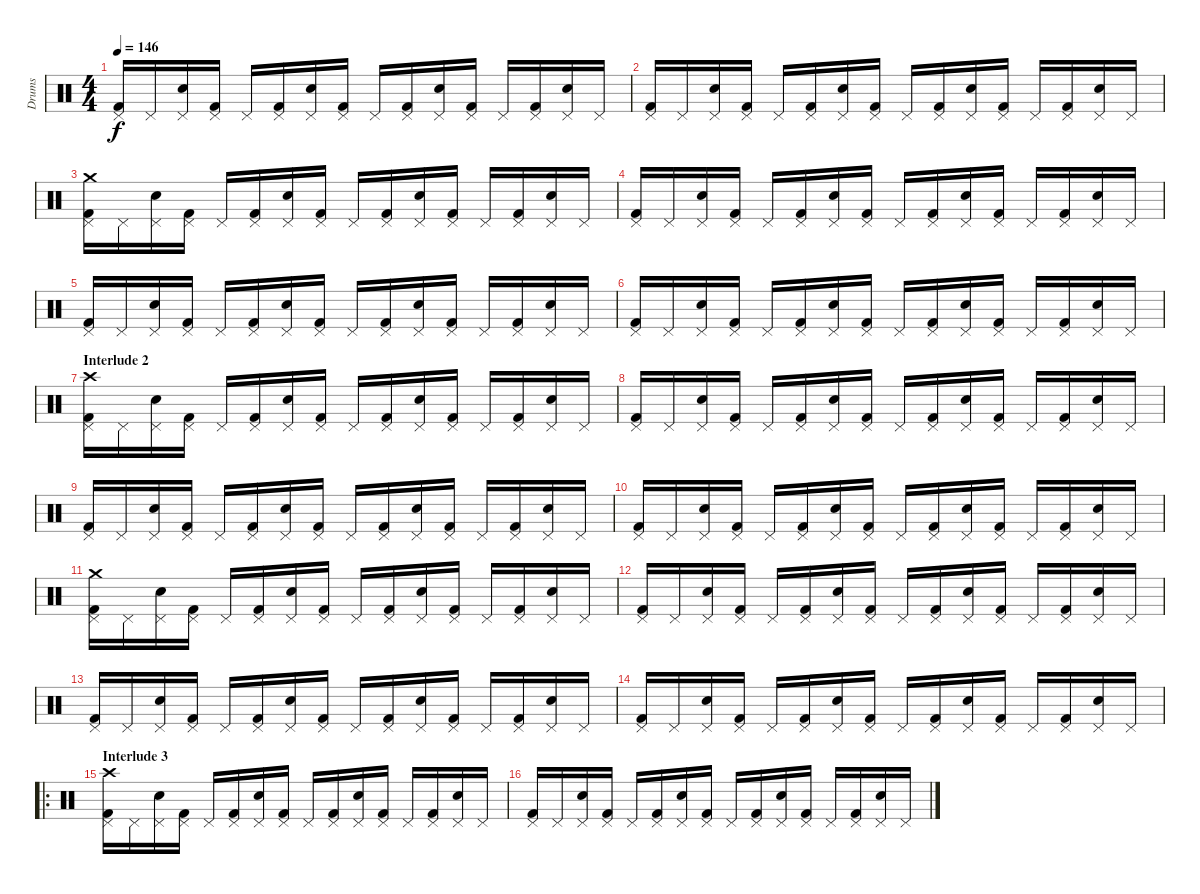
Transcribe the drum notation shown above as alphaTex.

\track ("Drums" "Drums") {instrument percussion}
\staff {score}
\articulation defaults
\ts (4 4)
\tempo 146
\clef neutral
\ks c
("Kick (hit) 2" "Pedal Hi-Hat (hit)").16{dy f} "Pedal Hi-Hat (hit)".16 ("Snare (hit) 2" "Pedal Hi-Hat (hit)").16 ("Kick (hit) 2" "Pedal Hi-Hat (hit)").16 "Pedal Hi-Hat (hit)".16 ("Kick (hit) 2" "Pedal Hi-Hat (hit)").16 ("Snare (hit) 2" "Pedal Hi-Hat (hit)").16 ("Kick (hit) 2" "Pedal Hi-Hat (hit)").16 "Pedal Hi-Hat (hit)".16 ("Kick (hit) 2" "Pedal Hi-Hat (hit)").16 ("Snare (hit) 2" "Pedal Hi-Hat (hit)").16 ("Kick (hit) 2" "Pedal Hi-Hat (hit)").16 "Pedal Hi-Hat (hit)".16 ("Kick (hit) 2" "Pedal Hi-Hat (hit)").16 ("Snare (hit) 2" "Pedal Hi-Hat (hit)").16 "Pedal Hi-Hat (hit)".16 |
("Kick (hit) 2" "Pedal Hi-Hat (hit)").16 "Pedal Hi-Hat (hit)".16 ("Snare (hit) 2" "Pedal Hi-Hat (hit)").16 ("Kick (hit) 2" "Pedal Hi-Hat (hit)").16 "Pedal Hi-Hat (hit)".16 ("Kick (hit) 2" "Pedal Hi-Hat (hit)").16 ("Snare (hit) 2" "Pedal Hi-Hat (hit)").16 ("Kick (hit) 2" "Pedal Hi-Hat (hit)").16 "Pedal Hi-Hat (hit)".16 ("Kick (hit) 2" "Pedal Hi-Hat (hit)").16 ("Snare (hit) 2" "Pedal Hi-Hat (hit)").16 ("Kick (hit) 2" "Pedal Hi-Hat (hit)").16 "Pedal Hi-Hat (hit)".16 ("Kick (hit) 2" "Pedal Hi-Hat (hit)").16 ("Snare (hit) 2" "Pedal Hi-Hat (hit)").16 "Pedal Hi-Hat (hit)".16 |
("Kick (hit) 2" "Pedal Hi-Hat (hit)" "Crash medium (hit)").16 "Pedal Hi-Hat (hit)".16 ("Snare (hit) 2" "Pedal Hi-Hat (hit)").16 ("Kick (hit) 2" "Pedal Hi-Hat (hit)").16 "Pedal Hi-Hat (hit)".16 ("Kick (hit) 2" "Pedal Hi-Hat (hit)").16 ("Snare (hit) 2" "Pedal Hi-Hat (hit)").16 ("Kick (hit) 2" "Pedal Hi-Hat (hit)").16 "Pedal Hi-Hat (hit)".16 ("Kick (hit) 2" "Pedal Hi-Hat (hit)").16 ("Snare (hit) 2" "Pedal Hi-Hat (hit)").16 ("Kick (hit) 2" "Pedal Hi-Hat (hit)").16 "Pedal Hi-Hat (hit)".16 ("Kick (hit) 2" "Pedal Hi-Hat (hit)").16 ("Snare (hit) 2" "Pedal Hi-Hat (hit)").16 "Pedal Hi-Hat (hit)".16 |
("Kick (hit) 2" "Pedal Hi-Hat (hit)").16 "Pedal Hi-Hat (hit)".16 ("Snare (hit) 2" "Pedal Hi-Hat (hit)").16 ("Kick (hit) 2" "Pedal Hi-Hat (hit)").16 "Pedal Hi-Hat (hit)".16 ("Kick (hit) 2" "Pedal Hi-Hat (hit)").16 ("Snare (hit) 2" "Pedal Hi-Hat (hit)").16 ("Kick (hit) 2" "Pedal Hi-Hat (hit)").16 "Pedal Hi-Hat (hit)".16 ("Kick (hit) 2" "Pedal Hi-Hat (hit)").16 ("Snare (hit) 2" "Pedal Hi-Hat (hit)").16 ("Kick (hit) 2" "Pedal Hi-Hat (hit)").16 "Pedal Hi-Hat (hit)".16 ("Kick (hit) 2" "Pedal Hi-Hat (hit)").16 ("Snare (hit) 2" "Pedal Hi-Hat (hit)").16 "Pedal Hi-Hat (hit)".16 |
("Kick (hit) 2" "Pedal Hi-Hat (hit)").16 "Pedal Hi-Hat (hit)".16 ("Snare (hit) 2" "Pedal Hi-Hat (hit)").16 ("Kick (hit) 2" "Pedal Hi-Hat (hit)").16 "Pedal Hi-Hat (hit)".16 ("Kick (hit) 2" "Pedal Hi-Hat (hit)").16 ("Snare (hit) 2" "Pedal Hi-Hat (hit)").16 ("Kick (hit) 2" "Pedal Hi-Hat (hit)").16 "Pedal Hi-Hat (hit)".16 ("Kick (hit) 2" "Pedal Hi-Hat (hit)").16 ("Snare (hit) 2" "Pedal Hi-Hat (hit)").16 ("Kick (hit) 2" "Pedal Hi-Hat (hit)").16 "Pedal Hi-Hat (hit)".16 ("Kick (hit) 2" "Pedal Hi-Hat (hit)").16 ("Snare (hit) 2" "Pedal Hi-Hat (hit)").16 "Pedal Hi-Hat (hit)".16 |
("Kick (hit) 2" "Pedal Hi-Hat (hit)").16 "Pedal Hi-Hat (hit)".16 ("Snare (hit) 2" "Pedal Hi-Hat (hit)").16 ("Kick (hit) 2" "Pedal Hi-Hat (hit)").16 "Pedal Hi-Hat (hit)".16 ("Kick (hit) 2" "Pedal Hi-Hat (hit)").16 ("Snare (hit) 2" "Pedal Hi-Hat (hit)").16 ("Kick (hit) 2" "Pedal Hi-Hat (hit)").16 "Pedal Hi-Hat (hit)".16 ("Kick (hit) 2" "Pedal Hi-Hat (hit)").16 ("Snare (hit) 2" "Pedal Hi-Hat (hit)").16 ("Kick (hit) 2" "Pedal Hi-Hat (hit)").16 "Pedal Hi-Hat (hit)".16 ("Kick (hit) 2" "Pedal Hi-Hat (hit)").16 ("Snare (hit) 2" "Pedal Hi-Hat (hit)").16 "Pedal Hi-Hat (hit)".16 |
\section ("" "Interlude 2")
("Kick (hit) 2" "Pedal Hi-Hat (hit)" "Crash high (hit)").16 "Pedal Hi-Hat (hit)".16 ("Snare (hit) 2" "Pedal Hi-Hat (hit)").16 ("Kick (hit) 2" "Pedal Hi-Hat (hit)").16 "Pedal Hi-Hat (hit)".16 ("Kick (hit) 2" "Pedal Hi-Hat (hit)").16 ("Snare (hit) 2" "Pedal Hi-Hat (hit)").16 ("Kick (hit) 2" "Pedal Hi-Hat (hit)").16 "Pedal Hi-Hat (hit)".16 ("Kick (hit) 2" "Pedal Hi-Hat (hit)").16 ("Snare (hit) 2" "Pedal Hi-Hat (hit)").16 ("Kick (hit) 2" "Pedal Hi-Hat (hit)").16 "Pedal Hi-Hat (hit)".16 ("Kick (hit) 2" "Pedal Hi-Hat (hit)").16 ("Snare (hit) 2" "Pedal Hi-Hat (hit)").16 "Pedal Hi-Hat (hit)".16 |
("Kick (hit) 2" "Pedal Hi-Hat (hit)").16 "Pedal Hi-Hat (hit)".16 ("Snare (hit) 2" "Pedal Hi-Hat (hit)").16 ("Kick (hit) 2" "Pedal Hi-Hat (hit)").16 "Pedal Hi-Hat (hit)".16 ("Kick (hit) 2" "Pedal Hi-Hat (hit)").16 ("Snare (hit) 2" "Pedal Hi-Hat (hit)").16 ("Kick (hit) 2" "Pedal Hi-Hat (hit)").16 "Pedal Hi-Hat (hit)".16 ("Kick (hit) 2" "Pedal Hi-Hat (hit)").16 ("Snare (hit) 2" "Pedal Hi-Hat (hit)").16 ("Kick (hit) 2" "Pedal Hi-Hat (hit)").16 "Pedal Hi-Hat (hit)".16 ("Kick (hit) 2" "Pedal Hi-Hat (hit)").16 ("Snare (hit) 2" "Pedal Hi-Hat (hit)").16 "Pedal Hi-Hat (hit)".16 |
("Kick (hit) 2" "Pedal Hi-Hat (hit)").16 "Pedal Hi-Hat (hit)".16 ("Snare (hit) 2" "Pedal Hi-Hat (hit)").16 ("Kick (hit) 2" "Pedal Hi-Hat (hit)").16 "Pedal Hi-Hat (hit)".16 ("Kick (hit) 2" "Pedal Hi-Hat (hit)").16 ("Snare (hit) 2" "Pedal Hi-Hat (hit)").16 ("Kick (hit) 2" "Pedal Hi-Hat (hit)").16 "Pedal Hi-Hat (hit)".16 ("Kick (hit) 2" "Pedal Hi-Hat (hit)").16 ("Snare (hit) 2" "Pedal Hi-Hat (hit)").16 ("Kick (hit) 2" "Pedal Hi-Hat (hit)").16 "Pedal Hi-Hat (hit)".16 ("Kick (hit) 2" "Pedal Hi-Hat (hit)").16 ("Snare (hit) 2" "Pedal Hi-Hat (hit)").16 "Pedal Hi-Hat (hit)".16 |
("Kick (hit) 2" "Pedal Hi-Hat (hit)").16 "Pedal Hi-Hat (hit)".16 ("Snare (hit) 2" "Pedal Hi-Hat (hit)").16 ("Kick (hit) 2" "Pedal Hi-Hat (hit)").16 "Pedal Hi-Hat (hit)".16 ("Kick (hit) 2" "Pedal Hi-Hat (hit)").16 ("Snare (hit) 2" "Pedal Hi-Hat (hit)").16 ("Kick (hit) 2" "Pedal Hi-Hat (hit)").16 "Pedal Hi-Hat (hit)".16 ("Kick (hit) 2" "Pedal Hi-Hat (hit)").16 ("Snare (hit) 2" "Pedal Hi-Hat (hit)").16 ("Kick (hit) 2" "Pedal Hi-Hat (hit)").16 "Pedal Hi-Hat (hit)".16 ("Kick (hit) 2" "Pedal Hi-Hat (hit)").16 ("Snare (hit) 2" "Pedal Hi-Hat (hit)").16 "Pedal Hi-Hat (hit)".16 |
("Kick (hit) 2" "Pedal Hi-Hat (hit)" "Crash medium (hit)").16 "Pedal Hi-Hat (hit)".16 ("Snare (hit) 2" "Pedal Hi-Hat (hit)").16 ("Kick (hit) 2" "Pedal Hi-Hat (hit)").16 "Pedal Hi-Hat (hit)".16 ("Kick (hit) 2" "Pedal Hi-Hat (hit)").16 ("Snare (hit) 2" "Pedal Hi-Hat (hit)").16 ("Kick (hit) 2" "Pedal Hi-Hat (hit)").16 "Pedal Hi-Hat (hit)".16 ("Kick (hit) 2" "Pedal Hi-Hat (hit)").16 ("Snare (hit) 2" "Pedal Hi-Hat (hit)").16 ("Kick (hit) 2" "Pedal Hi-Hat (hit)").16 "Pedal Hi-Hat (hit)".16 ("Kick (hit) 2" "Pedal Hi-Hat (hit)").16 ("Snare (hit) 2" "Pedal Hi-Hat (hit)").16 "Pedal Hi-Hat (hit)".16 |
("Kick (hit) 2" "Pedal Hi-Hat (hit)").16 "Pedal Hi-Hat (hit)".16 ("Snare (hit) 2" "Pedal Hi-Hat (hit)").16 ("Kick (hit) 2" "Pedal Hi-Hat (hit)").16 "Pedal Hi-Hat (hit)".16 ("Kick (hit) 2" "Pedal Hi-Hat (hit)").16 ("Snare (hit) 2" "Pedal Hi-Hat (hit)").16 ("Kick (hit) 2" "Pedal Hi-Hat (hit)").16 "Pedal Hi-Hat (hit)".16 ("Kick (hit) 2" "Pedal Hi-Hat (hit)").16 ("Snare (hit) 2" "Pedal Hi-Hat (hit)").16 ("Kick (hit) 2" "Pedal Hi-Hat (hit)").16 "Pedal Hi-Hat (hit)".16 ("Kick (hit) 2" "Pedal Hi-Hat (hit)").16 ("Snare (hit) 2" "Pedal Hi-Hat (hit)").16 "Pedal Hi-Hat (hit)".16 |
("Kick (hit) 2" "Pedal Hi-Hat (hit)").16 "Pedal Hi-Hat (hit)".16 ("Snare (hit) 2" "Pedal Hi-Hat (hit)").16 ("Kick (hit) 2" "Pedal Hi-Hat (hit)").16 "Pedal Hi-Hat (hit)".16 ("Kick (hit) 2" "Pedal Hi-Hat (hit)").16 ("Snare (hit) 2" "Pedal Hi-Hat (hit)").16 ("Kick (hit) 2" "Pedal Hi-Hat (hit)").16 "Pedal Hi-Hat (hit)".16 ("Kick (hit) 2" "Pedal Hi-Hat (hit)").16 ("Snare (hit) 2" "Pedal Hi-Hat (hit)").16 ("Kick (hit) 2" "Pedal Hi-Hat (hit)").16 "Pedal Hi-Hat (hit)".16 ("Kick (hit) 2" "Pedal Hi-Hat (hit)").16 ("Snare (hit) 2" "Pedal Hi-Hat (hit)").16 "Pedal Hi-Hat (hit)".16 |
("Kick (hit) 2" "Pedal Hi-Hat (hit)").16 "Pedal Hi-Hat (hit)".16 ("Snare (hit) 2" "Pedal Hi-Hat (hit)").16 ("Kick (hit) 2" "Pedal Hi-Hat (hit)").16 "Pedal Hi-Hat (hit)".16 ("Kick (hit) 2" "Pedal Hi-Hat (hit)").16 ("Snare (hit) 2" "Pedal Hi-Hat (hit)").16 ("Kick (hit) 2" "Pedal Hi-Hat (hit)").16 "Pedal Hi-Hat (hit)".16 ("Kick (hit) 2" "Pedal Hi-Hat (hit)").16 ("Snare (hit) 2" "Pedal Hi-Hat (hit)").16 ("Kick (hit) 2" "Pedal Hi-Hat (hit)").16 "Pedal Hi-Hat (hit)".16 ("Kick (hit) 2" "Pedal Hi-Hat (hit)").16 ("Snare (hit) 2" "Pedal Hi-Hat (hit)").16 "Pedal Hi-Hat (hit)".16 |
\ro
\section ("" "Interlude 3")
("Kick (hit) 2" "Pedal Hi-Hat (hit)" "Crash high (hit)").16 "Pedal Hi-Hat (hit)".16 ("Snare (hit) 2" "Pedal Hi-Hat (hit)").16 ("Kick (hit) 2" "Pedal Hi-Hat (hit)").16 "Pedal Hi-Hat (hit)".16 ("Kick (hit) 2" "Pedal Hi-Hat (hit)").16 ("Snare (hit) 2" "Pedal Hi-Hat (hit)").16 ("Kick (hit) 2" "Pedal Hi-Hat (hit)").16 "Pedal Hi-Hat (hit)".16 ("Kick (hit) 2" "Pedal Hi-Hat (hit)").16 ("Snare (hit) 2" "Pedal Hi-Hat (hit)").16 ("Kick (hit) 2" "Pedal Hi-Hat (hit)").16 "Pedal Hi-Hat (hit)".16 ("Kick (hit) 2" "Pedal Hi-Hat (hit)").16 ("Snare (hit) 2" "Pedal Hi-Hat (hit)").16 "Pedal Hi-Hat (hit)".16 |
("Kick (hit) 2" "Pedal Hi-Hat (hit)").16 "Pedal Hi-Hat (hit)".16 ("Snare (hit) 2" "Pedal Hi-Hat (hit)").16 ("Kick (hit) 2" "Pedal Hi-Hat (hit)").16 "Pedal Hi-Hat (hit)".16 ("Kick (hit) 2" "Pedal Hi-Hat (hit)").16 ("Snare (hit) 2" "Pedal Hi-Hat (hit)").16 ("Kick (hit) 2" "Pedal Hi-Hat (hit)").16 "Pedal Hi-Hat (hit)".16 ("Kick (hit) 2" "Pedal Hi-Hat (hit)").16 ("Snare (hit) 2" "Pedal Hi-Hat (hit)").16 ("Kick (hit) 2" "Pedal Hi-Hat (hit)").16 "Pedal Hi-Hat (hit)".16 ("Kick (hit) 2" "Pedal Hi-Hat (hit)").16 ("Snare (hit) 2" "Pedal Hi-Hat (hit)").16 "Pedal Hi-Hat (hit)".16
